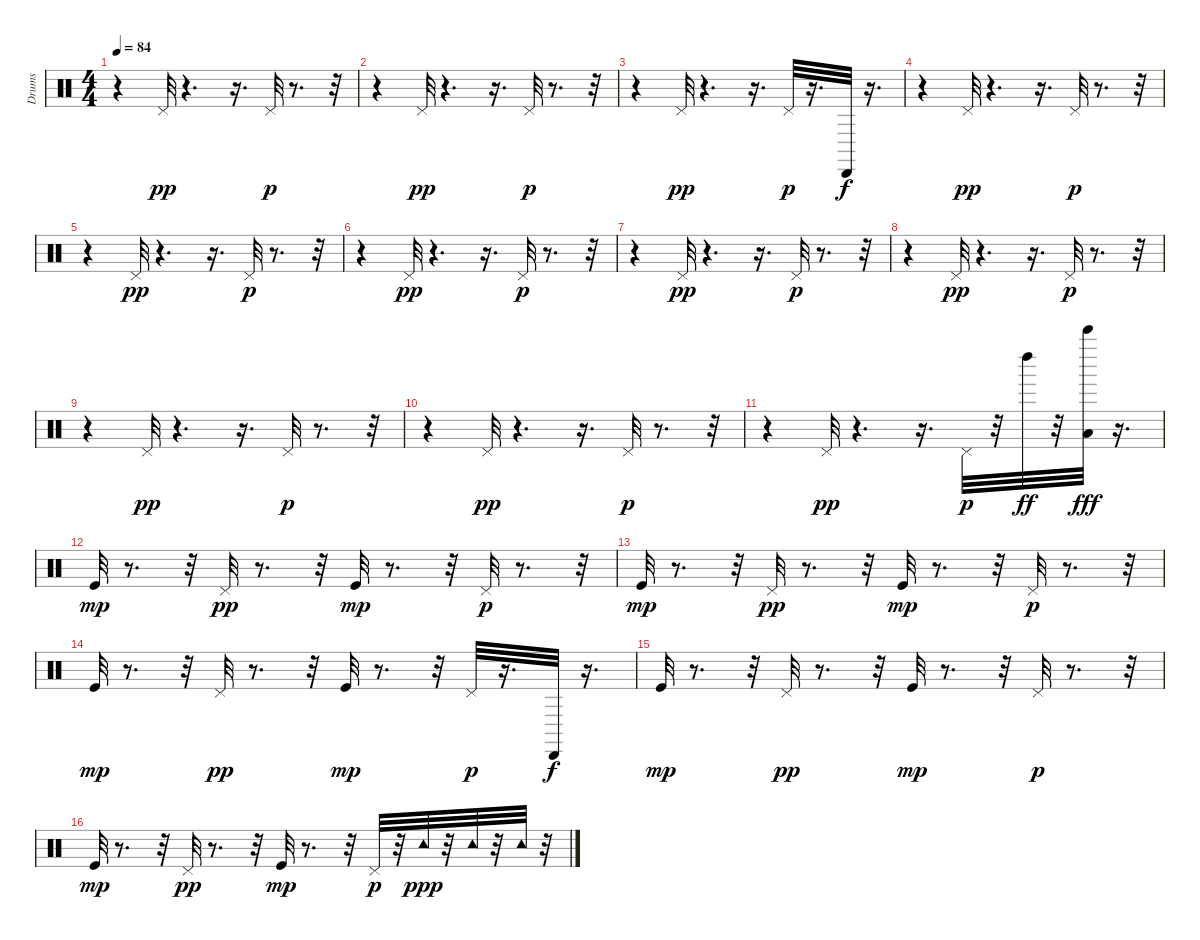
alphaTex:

\track ("Drums" "Drums") {instrument percussion}
\staff {score}
\articulation defaults
\ts (4 4)
\tempo 84
\clef neutral
\ks c
r.4{dy p} "Pedal Hi-Hat (hit)".32{dy pp} r.4{d} r.16{d} "Pedal Hi-Hat (hit)".32{dy p} r.8{d} r.32 |
r.4 "Pedal Hi-Hat (hit)".32{dy pp} r.4{d} r.16{d} "Pedal Hi-Hat (hit)".32{dy p} r.8{d} r.32 |
r.4 "Pedal Hi-Hat (hit)".32{dy pp} r.4{d} r.16{d} "Pedal Hi-Hat (hit)".32{dy p} r.16{d} "Cabasa (hit)".32{dy f} r.16{d} |
r.4 "Pedal Hi-Hat (hit)".32{dy pp} r.4{d} r.16{d} "Pedal Hi-Hat (hit)".32{dy p} r.8{d} r.32 |
r.4 "Pedal Hi-Hat (hit)".32{dy pp} r.4{d} r.16{d} "Pedal Hi-Hat (hit)".32{dy p} r.8{d} r.32 |
r.4 "Pedal Hi-Hat (hit)".32{dy pp} r.4{d} r.16{d} "Pedal Hi-Hat (hit)".32{dy p} r.8{d} r.32 |
r.4 "Pedal Hi-Hat (hit)".32{dy pp} r.4{d} r.16{d} "Pedal Hi-Hat (hit)".32{dy p} r.8{d} r.32 |
r.4 "Pedal Hi-Hat (hit)".32{dy pp} r.4{d} r.16{d} "Pedal Hi-Hat (hit)".32{dy p} r.8{d} r.32 |
r.4 "Pedal Hi-Hat (hit)".32{dy pp} r.4{d} r.16{d} "Pedal Hi-Hat (hit)".32{dy p} r.8{d} r.32 |
r.4 "Pedal Hi-Hat (hit)".32{dy pp} r.4{d} r.16{d} "Pedal Hi-Hat (hit)".32{dy p} r.8{d} r.32 |
r.4 "Pedal Hi-Hat (hit)".32{dy pp} r.4{d} r.16{d} "Pedal Hi-Hat (hit)".32{dy p} r.32 "Left Maraca (hit)".32{dy ff} r.32 ("Bell Tree (hit)" "Low Tom (hit)").32{dy fff} r.16{d} |
"Kick (hit)".32{dy mp} r.8{d} r.32 "Pedal Hi-Hat (hit)".32{dy pp} r.8{d} r.32 "Kick (hit)".32{dy mp} r.8{d} r.32 "Pedal Hi-Hat (hit)".32{dy p} r.8{d} r.32 |
"Kick (hit)".32{dy mp} r.8{d} r.32 "Pedal Hi-Hat (hit)".32{dy pp} r.8{d} r.32 "Kick (hit)".32{dy mp} r.8{d} r.32 "Pedal Hi-Hat (hit)".32{dy p} r.8{d} r.32 |
"Kick (hit)".32{dy mp} r.8{d} r.32 "Pedal Hi-Hat (hit)".32{dy pp} r.8{d} r.32 "Kick (hit)".32{dy mp} r.8{d} r.32 "Pedal Hi-Hat (hit)".32{dy p} r.16{d} "Cabasa (hit)".32{dy f} r.16{d} |
"Kick (hit)".32{dy mp} r.8{d} r.32 "Pedal Hi-Hat (hit)".32{dy pp} r.8{d} r.32 "Kick (hit)".32{dy mp} r.8{d} r.32 "Pedal Hi-Hat (hit)".32{dy p} r.8{d} r.32 |
"Kick (hit)".32{dy mp} r.8{d} r.32 "Pedal Hi-Hat (hit)".32{dy pp} r.8{d} r.32 "Kick (hit)".32{dy mp} r.8{d} r.32 "Pedal Hi-Hat (hit)".32{dy p} r.32 "Tambourine (hit)".32{dy ppp} r.32 "Tambourine (hit)".32 r.32 "Tambourine (hit)".32 r.32
